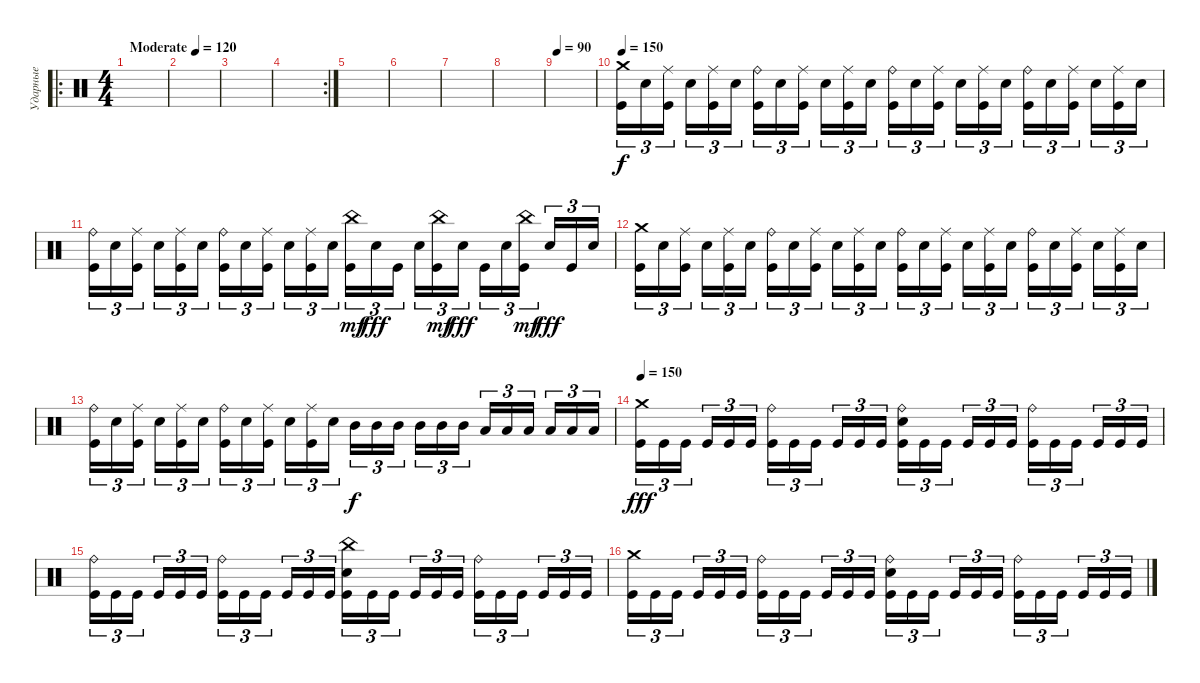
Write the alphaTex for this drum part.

\track ("Ударные" "Ударные") {instrument percussion}
\staff {score}
\articulation defaults
\ro
\ts (4 4)
\tempo (120 "Moderate")
\clef neutral
\ks c
|
|
|
\rc 2
|
|
|
|
|
\tempo 90
|
\tempo 150
("Crash medium (hit)" "Kick (hit)").16{tu (3 2)} "Electric Snare (hit)".16{tu (3 2)} ("Kick (hit)" "Ride (middle)").16{tu (3 2) beam splitsecondary} "Electric Snare (hit)".16{tu (3 2)} ("Kick (hit)" "Ride (middle)").16{tu (3 2)} "Electric Snare (hit)".16{tu (3 2)} ("Kick (hit)" "Ride (bell)").16{tu (3 2)} "Electric Snare (hit)".16{tu (3 2)} ("Kick (hit)" "Ride (middle)").16{tu (3 2) beam splitsecondary} "Electric Snare (hit)".16{tu (3 2)} ("Kick (hit)" "Ride (middle)").16{tu (3 2)} "Electric Snare (hit)".16{tu (3 2)} ("Kick (hit)" "Ride (bell)").16{tu (3 2)} "Electric Snare (hit)".16{tu (3 2)} ("Kick (hit)" "Ride (middle)").16{tu (3 2) beam splitsecondary} "Electric Snare (hit)".16{tu (3 2)} ("Kick (hit)" "Ride (middle)").16{tu (3 2)} "Electric Snare (hit)".16{tu (3 2)} ("Kick (hit)" "Ride (bell)").16{tu (3 2)} "Electric Snare (hit)".16{tu (3 2)} ("Kick (hit)" "Ride (middle)").16{tu (3 2) beam splitsecondary} "Electric Snare (hit)".16{tu (3 2)} ("Kick (hit)" "Ride (middle)").16{tu (3 2)} "Electric Snare (hit)".16{tu (3 2)} |
("Kick (hit)" "Ride (bell)").16{tu (3 2)} "Electric Snare (hit)".16{tu (3 2)} ("Kick (hit)" "Ride (middle)").16{tu (3 2) beam splitsecondary} "Electric Snare (hit)".16{tu (3 2)} ("Kick (hit)" "Ride (middle)").16{tu (3 2)} "Electric Snare (hit)".16{tu (3 2)} ("Kick (hit)" "Ride (bell)").16{tu (3 2)} "Electric Snare (hit)".16{tu (3 2)} ("Kick (hit)" "Ride (middle)").16{tu (3 2) beam splitsecondary} "Electric Snare (hit)".16{tu (3 2)} ("Kick (hit)" "Ride (middle)").16{tu (3 2)} "Electric Snare (hit)".16{tu (3 2)} ("Kick (hit)" "China (hit)").16{tu (3 2) dy mf} "Electric Snare (hit)".16{tu (3 2) dy fff} "Kick (hit)".16{tu (3 2) beam splitsecondary} "Electric Snare (hit)".16{tu (3 2)} ("Kick (hit)" "China (hit)").16{tu (3 2) dy mf} "Electric Snare (hit)".16{tu (3 2) dy fff} "Kick (hit)".16{tu (3 2)} "Electric Snare (hit)".16{tu (3 2)} ("Kick (hit)" "China (hit)").16{tu (3 2) dy mf beam splitsecondary} "Electric Snare (hit)".16{tu (3 2) dy fff} "Kick (hit)".16{tu (3 2)} "Electric Snare (hit)".16{tu (3 2)} |
("Crash medium (hit)" "Kick (hit)").16{tu (3 2)} "Electric Snare (hit)".16{tu (3 2)} ("Kick (hit)" "Ride (middle)").16{tu (3 2) beam splitsecondary} "Electric Snare (hit)".16{tu (3 2)} ("Kick (hit)" "Ride (middle)").16{tu (3 2)} "Electric Snare (hit)".16{tu (3 2)} ("Kick (hit)" "Ride (bell)").16{tu (3 2)} "Electric Snare (hit)".16{tu (3 2)} ("Kick (hit)" "Ride (middle)").16{tu (3 2) beam splitsecondary} "Electric Snare (hit)".16{tu (3 2)} ("Kick (hit)" "Ride (middle)").16{tu (3 2)} "Electric Snare (hit)".16{tu (3 2)} ("Kick (hit)" "Ride (bell)").16{tu (3 2)} "Electric Snare (hit)".16{tu (3 2)} ("Kick (hit)" "Ride (middle)").16{tu (3 2) beam splitsecondary} "Electric Snare (hit)".16{tu (3 2)} ("Kick (hit)" "Ride (middle)").16{tu (3 2)} "Electric Snare (hit)".16{tu (3 2)} ("Kick (hit)" "Ride (bell)").16{tu (3 2)} "Electric Snare (hit)".16{tu (3 2)} ("Kick (hit)" "Ride (middle)").16{tu (3 2) beam splitsecondary} "Electric Snare (hit)".16{tu (3 2)} ("Kick (hit)" "Ride (middle)").16{tu (3 2)} "Electric Snare (hit)".16{tu (3 2)} |
("Kick (hit)" "Ride (bell)").16{tu (3 2)} "Electric Snare (hit)".16{tu (3 2)} ("Kick (hit)" "Ride (middle)").16{tu (3 2) beam splitsecondary} "Electric Snare (hit)".16{tu (3 2)} ("Kick (hit)" "Ride (middle)").16{tu (3 2)} "Electric Snare (hit)".16{tu (3 2)} ("Kick (hit)" "Ride (bell)").16{tu (3 2)} "Electric Snare (hit)".16{tu (3 2)} ("Kick (hit)" "Ride (middle)").16{tu (3 2) beam splitsecondary} "Electric Snare (hit)".16{tu (3 2)} ("Kick (hit)" "Ride (middle)").16{tu (3 2)} "Electric Snare (hit)".16{tu (3 2)} "Mid Tom (hit)".16{tu (3 2) dy f} "Mid Tom (hit)".16{tu (3 2)} "Mid Tom (hit)".16{tu (3 2) beam splitsecondary} "Mid Tom (hit)".16{tu (3 2)} "Mid Tom (hit)".16{tu (3 2)} "Mid Tom (hit)".16{tu (3 2)} "Low Tom (hit)".16{tu (3 2)} "Low Tom (hit)".16{tu (3 2)} "Low Tom (hit)".16{tu (3 2) beam splitsecondary} "Low Tom (hit)".16{tu (3 2)} "Low Tom (hit)".16{tu (3 2)} "Low Tom (hit)".16{tu (3 2)} |
\tempo 150
("Crash medium (hit)" "Kick (hit)").16{tu (3 2) dy fff} "Kick (hit)".16{tu (3 2)} "Kick (hit)".16{tu (3 2) beam splitsecondary} "Kick (hit)".16{tu (3 2)} "Kick (hit)".16{tu (3 2)} "Kick (hit)".16{tu (3 2)} ("Kick (hit)" "Ride (bell)").16{tu (3 2)} "Kick (hit)".16{tu (3 2)} "Kick (hit)".16{tu (3 2) beam splitsecondary} "Kick (hit)".16{tu (3 2)} "Kick (hit)".16{tu (3 2)} "Kick (hit)".16{tu (3 2)} ("Kick (hit)" "Ride (bell)" "Electric Snare (hit)").16{tu (3 2)} "Kick (hit)".16{tu (3 2)} "Kick (hit)".16{tu (3 2) beam splitsecondary} "Kick (hit)".16{tu (3 2)} "Kick (hit)".16{tu (3 2)} "Kick (hit)".16{tu (3 2)} ("Kick (hit)" "Ride (bell)").16{tu (3 2)} "Kick (hit)".16{tu (3 2)} "Kick (hit)".16{tu (3 2) beam splitsecondary} "Kick (hit)".16{tu (3 2)} "Kick (hit)".16{tu (3 2)} "Kick (hit)".16{tu (3 2)} |
("Ride (bell)" "Kick (hit)").16{tu (3 2)} "Kick (hit)".16{tu (3 2)} "Kick (hit)".16{tu (3 2) beam splitsecondary} "Kick (hit)".16{tu (3 2)} "Kick (hit)".16{tu (3 2)} "Kick (hit)".16{tu (3 2)} ("Kick (hit)" "Ride (bell)").16{tu (3 2)} "Kick (hit)".16{tu (3 2)} "Kick (hit)".16{tu (3 2) beam splitsecondary} "Kick (hit)".16{tu (3 2)} "Kick (hit)".16{tu (3 2)} "Kick (hit)".16{tu (3 2)} ("Kick (hit)" "China (hit)" "Electric Snare (hit)").16{tu (3 2)} "Kick (hit)".16{tu (3 2)} "Kick (hit)".16{tu (3 2) beam splitsecondary} "Kick (hit)".16{tu (3 2)} "Kick (hit)".16{tu (3 2)} "Kick (hit)".16{tu (3 2)} ("Kick (hit)" "Ride (bell)").16{tu (3 2)} "Kick (hit)".16{tu (3 2)} "Kick (hit)".16{tu (3 2) beam splitsecondary} "Kick (hit)".16{tu (3 2)} "Kick (hit)".16{tu (3 2)} "Kick (hit)".16{tu (3 2)} |
("Crash medium (hit)" "Kick (hit)").16{tu (3 2)} "Kick (hit)".16{tu (3 2)} "Kick (hit)".16{tu (3 2) beam splitsecondary} "Kick (hit)".16{tu (3 2)} "Kick (hit)".16{tu (3 2)} "Kick (hit)".16{tu (3 2)} ("Kick (hit)" "Ride (bell)").16{tu (3 2)} "Kick (hit)".16{tu (3 2)} "Kick (hit)".16{tu (3 2) beam splitsecondary} "Kick (hit)".16{tu (3 2)} "Kick (hit)".16{tu (3 2)} "Kick (hit)".16{tu (3 2)} ("Kick (hit)" "Ride (bell)" "Electric Snare (hit)").16{tu (3 2)} "Kick (hit)".16{tu (3 2)} "Kick (hit)".16{tu (3 2) beam splitsecondary} "Kick (hit)".16{tu (3 2)} "Kick (hit)".16{tu (3 2)} "Kick (hit)".16{tu (3 2)} ("Kick (hit)" "Ride (bell)").16{tu (3 2)} "Kick (hit)".16{tu (3 2)} "Kick (hit)".16{tu (3 2) beam splitsecondary} "Kick (hit)".16{tu (3 2)} "Kick (hit)".16{tu (3 2)} "Kick (hit)".16{tu (3 2)}
